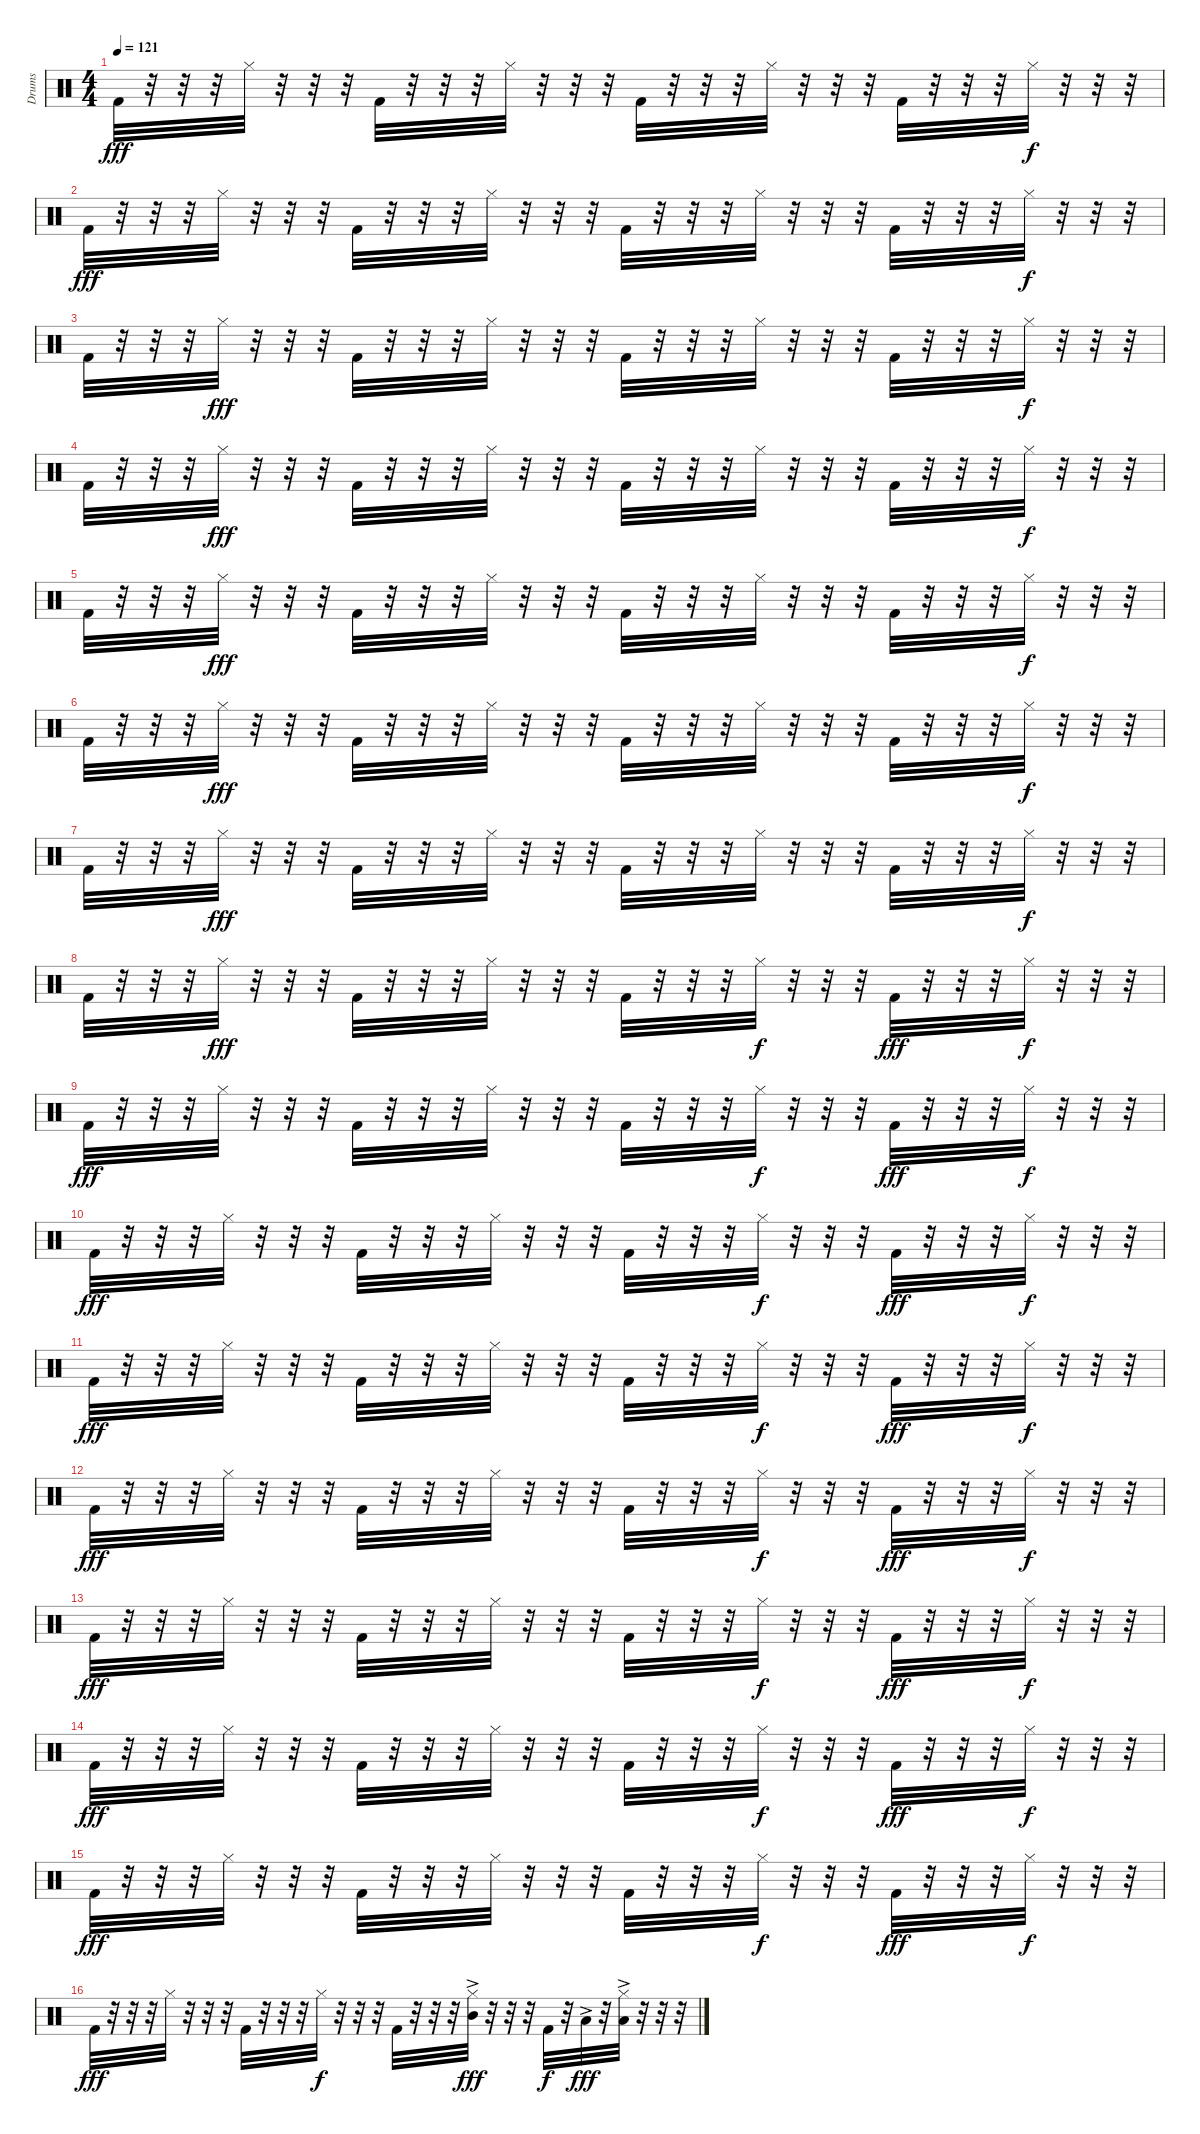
\track ("Drums" "Drums") {instrument percussion}
\staff {score}
\articulation defaults
\ts (4 4)
\tempo 121
\clef neutral
\ks c "Kick (hit) 2".32{dy fff}
r.32 r.32 r.32 "Hi-Hat (closed)".32 r.32 r.32 r.32 "Kick (hit) 2".32 r.32 r.32 r.32 "Hi-Hat (closed)".32 r.32 r.32 r.32 "Kick (hit) 2".32 r.32 r.32 r.32 "Hi-Hat (closed)".32 r.32 r.32 r.32 "Kick (hit) 2".32 r.32 r.32 r.32 "Hi-Hat (closed)".32{dy f} r.32 r.32 r.32 |
"Kick (hit) 2".32{dy fff} r.32 r.32 r.32 "Hi-Hat (closed)".32 r.32 r.32 r.32 "Kick (hit) 2".32 r.32 r.32 r.32 "Hi-Hat (closed)".32 r.32 r.32 r.32 "Kick (hit) 2".32 r.32 r.32 r.32 "Hi-Hat (closed)".32 r.32 r.32 r.32 "Kick (hit) 2".32 r.32 r.32 r.32 "Hi-Hat (closed)".32{dy f} r.32 r.32 r.32 |
"Kick (hit) 2".32 r.32 r.32 r.32 "Hi-Hat (closed)".32{dy fff} r.32 r.32 r.32 "Kick (hit) 2".32 r.32 r.32 r.32 "Hi-Hat (closed)".32 r.32 r.32 r.32 "Kick (hit) 2".32 r.32 r.32 r.32 "Hi-Hat (closed)".32 r.32 r.32 r.32 "Kick (hit) 2".32 r.32 r.32 r.32 "Hi-Hat (closed)".32{dy f} r.32 r.32 r.32 |
"Kick (hit) 2".32 r.32 r.32 r.32 "Hi-Hat (closed)".32{dy fff} r.32 r.32 r.32 "Kick (hit) 2".32 r.32 r.32 r.32 "Hi-Hat (closed)".32 r.32 r.32 r.32 "Kick (hit) 2".32 r.32 r.32 r.32 "Hi-Hat (closed)".32 r.32 r.32 r.32 "Kick (hit) 2".32 r.32 r.32 r.32 "Hi-Hat (closed)".32{dy f} r.32 r.32 r.32 |
"Kick (hit) 2".32 r.32 r.32 r.32 "Hi-Hat (closed)".32{dy fff} r.32 r.32 r.32 "Kick (hit) 2".32 r.32 r.32 r.32 "Hi-Hat (closed)".32 r.32 r.32 r.32 "Kick (hit) 2".32 r.32 r.32 r.32 "Hi-Hat (closed)".32 r.32 r.32 r.32 "Kick (hit) 2".32 r.32 r.32 r.32 "Hi-Hat (closed)".32{dy f} r.32 r.32 r.32 |
"Kick (hit) 2".32 r.32 r.32 r.32 "Hi-Hat (closed)".32{dy fff} r.32 r.32 r.32 "Kick (hit) 2".32 r.32 r.32 r.32 "Hi-Hat (closed)".32 r.32 r.32 r.32 "Kick (hit) 2".32 r.32 r.32 r.32 "Hi-Hat (closed)".32 r.32 r.32 r.32 "Kick (hit) 2".32 r.32 r.32 r.32 "Hi-Hat (closed)".32{dy f} r.32 r.32 r.32 |
"Kick (hit) 2".32 r.32 r.32 r.32 "Hi-Hat (closed)".32{dy fff} r.32 r.32 r.32 "Kick (hit) 2".32 r.32 r.32 r.32 "Hi-Hat (closed)".32 r.32 r.32 r.32 "Kick (hit) 2".32 r.32 r.32 r.32 "Hi-Hat (closed)".32 r.32 r.32 r.32 "Kick (hit) 2".32 r.32 r.32 r.32 "Hi-Hat (closed)".32{dy f} r.32 r.32 r.32 |
"Kick (hit) 2".32 r.32 r.32 r.32 "Hi-Hat (closed)".32{dy fff} r.32 r.32 r.32 "Kick (hit) 2".32 r.32 r.32 r.32 "Hi-Hat (closed)".32 r.32 r.32 r.32 "Kick (hit) 2".32 r.32 r.32 r.32 "Hi-Hat (closed)".32{dy f} r.32 r.32 r.32 "Kick (hit) 2".32{dy fff} r.32 r.32 r.32 "Hi-Hat (closed)".32{dy f} r.32 r.32 r.32 |
"Kick (hit) 2".32{dy fff} r.32 r.32 r.32 "Hi-Hat (closed)".32 r.32 r.32 r.32 "Kick (hit) 2".32 r.32 r.32 r.32 "Hi-Hat (closed)".32 r.32 r.32 r.32 "Kick (hit) 2".32 r.32 r.32 r.32 "Hi-Hat (closed)".32{dy f} r.32 r.32 r.32 "Kick (hit) 2".32{dy fff} r.32 r.32 r.32 "Hi-Hat (closed)".32{dy f} r.32 r.32 r.32 |
"Kick (hit) 2".32{dy fff} r.32 r.32 r.32 "Hi-Hat (closed)".32 r.32 r.32 r.32 "Kick (hit) 2".32 r.32 r.32 r.32 "Hi-Hat (closed)".32 r.32 r.32 r.32 "Kick (hit) 2".32 r.32 r.32 r.32 "Hi-Hat (closed)".32{dy f} r.32 r.32 r.32 "Kick (hit) 2".32{dy fff} r.32 r.32 r.32 "Hi-Hat (closed)".32{dy f} r.32 r.32 r.32 |
"Kick (hit) 2".32{dy fff} r.32 r.32 r.32 "Hi-Hat (closed)".32 r.32 r.32 r.32 "Kick (hit) 2".32 r.32 r.32 r.32 "Hi-Hat (closed)".32 r.32 r.32 r.32 "Kick (hit) 2".32 r.32 r.32 r.32 "Hi-Hat (closed)".32{dy f} r.32 r.32 r.32 "Kick (hit) 2".32{dy fff} r.32 r.32 r.32 "Hi-Hat (closed)".32{dy f} r.32 r.32 r.32 |
"Kick (hit) 2".32{dy fff} r.32 r.32 r.32 "Hi-Hat (closed)".32 r.32 r.32 r.32 "Kick (hit) 2".32 r.32 r.32 r.32 "Hi-Hat (closed)".32 r.32 r.32 r.32 "Kick (hit) 2".32 r.32 r.32 r.32 "Hi-Hat (closed)".32{dy f} r.32 r.32 r.32 "Kick (hit) 2".32{dy fff} r.32 r.32 r.32 "Hi-Hat (closed)".32{dy f} r.32 r.32 r.32 |
"Kick (hit) 2".32{dy fff} r.32 r.32 r.32 "Hi-Hat (closed)".32 r.32 r.32 r.32 "Kick (hit) 2".32 r.32 r.32 r.32 "Hi-Hat (closed)".32 r.32 r.32 r.32 "Kick (hit) 2".32 r.32 r.32 r.32 "Hi-Hat (closed)".32{dy f} r.32 r.32 r.32 "Kick (hit) 2".32{dy fff} r.32 r.32 r.32 "Hi-Hat (closed)".32{dy f} r.32 r.32 r.32 |
"Kick (hit) 2".32{dy fff} r.32 r.32 r.32 "Hi-Hat (closed)".32 r.32 r.32 r.32 "Kick (hit) 2".32 r.32 r.32 r.32 "Hi-Hat (closed)".32 r.32 r.32 r.32 "Kick (hit) 2".32 r.32 r.32 r.32 "Hi-Hat (closed)".32{dy f} r.32 r.32 r.32 "Kick (hit) 2".32{dy fff} r.32 r.32 r.32 "Hi-Hat (closed)".32{dy f} r.32 r.32 r.32 |
"Kick (hit) 2".32{dy fff} r.32 r.32 r.32 "Hi-Hat (closed)".32 r.32 r.32 r.32 "Kick (hit) 2".32 r.32 r.32 r.32 "Hi-Hat (closed)".32 r.32 r.32 r.32 "Kick (hit) 2".32 r.32 r.32 r.32 "Hi-Hat (closed)".32{dy f} r.32 r.32 r.32 "Kick (hit) 2".32{dy fff} r.32 r.32 r.32 "Hi-Hat (closed)".32{dy f} r.32 r.32 r.32 |
"Kick (hit) 2".32{dy fff} r.32 r.32 r.32 "Hi-Hat (closed)".32 r.32 r.32 r.32 "Kick (hit) 2".32 r.32 r.32 r.32 "Hi-Hat (closed)".32{dy f} r.32 r.32 r.32 "Kick (hit) 2".32 r.32 r.32 r.32 ("Hi-Hat (closed)" "Mid Tom (hit)"{ac}).32{dy fff} r.32 r.32 r.32 "Kick (hit) 2".32{dy f} r.32 "Low Tom (hit)"{ac}.32{dy fff} r.32 ("Hi-Hat (closed)" "Low Tom (hit)"{ac}).32 r.32 r.32 r.32
